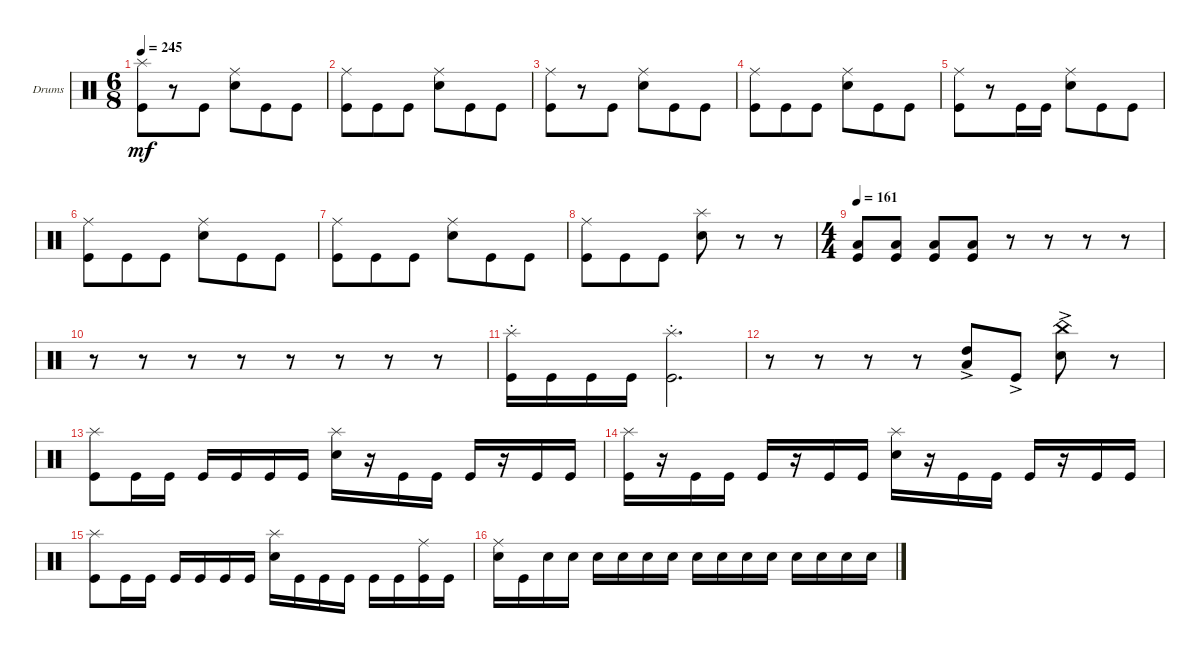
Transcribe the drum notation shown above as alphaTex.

\bracketExtendMode groupsimilarinstruments
\firstSystemTrackNameOrientation horizontal
\otherSystemsTrackNameOrientation horizontal
\track ("Drumkit" "Drums") {instrument percussion}
\staff {score}
\articulation defaults
\ts (6 8)
\tempo 245
\clef neutral
\ks c
("Kick (hit)" "Splash (hit)").8{dy mf} r.8 "Kick (hit)".8 ("Snare (hit) 2" "Ride (middle)").8 "Kick (hit)".8 "Kick (hit)".8 |
("Kick (hit)" "Ride (middle)").8 "Kick (hit)".8 "Kick (hit)".8 ("Snare (hit) 2" "Ride (middle)").8 "Kick (hit)".8 "Kick (hit)".8 |
("Kick (hit)" "Ride (middle)").8 r.8 "Kick (hit)".8 ("Snare (hit) 2" "Ride (middle)").8 "Kick (hit)".8 "Kick (hit)".8 |
("Kick (hit)" "Ride (middle)").8 "Kick (hit)".8 "Kick (hit)".8 ("Snare (hit) 2" "Ride (middle)").8 "Kick (hit)".8 "Kick (hit)".8 |
("Kick (hit)" "Ride (middle)").8 r.8 "Kick (hit)".16 "Kick (hit)".16 ("Snare (hit) 2" "Ride (middle)").8 "Kick (hit)".8 "Kick (hit)".8 |
("Kick (hit)" "Ride (middle)").8 "Kick (hit)".8 "Kick (hit)".8 ("Snare (hit) 2" "Ride (middle)").8 "Kick (hit)".8 "Kick (hit)".8 |
("Kick (hit)" "Ride (middle)").8 "Kick (hit)".8 "Kick (hit)".8 ("Snare (hit) 2" "Ride (middle)").8 "Kick (hit)".8 "Kick (hit)".8 |
("Kick (hit)" "Ride (middle)").8 "Kick (hit)".8 "Kick (hit)".8 ("Snare (hit) 2" "Splash (hit)").8 r.8 r.8 |
\ts (4 4)
\tempo 161
("Kick (hit)" "Low Tom (hit)").8 ("Kick (hit)" "Low Tom (hit)").8 ("Kick (hit)" "Low Tom (hit)").8 ("Kick (hit)" "Low Tom (hit)").8 r.8 r.8 r.8 r.8 |
r.8 r.8 r.8 r.8 r.8 r.8 r.8 r.8 |
("Kick (hit)" "Splash (hit)"{st}).16 "Kick (hit)".16 "Kick (hit)".16 "Kick (hit)".16 ("Kick (hit)" "Splash (hit)"{st}).2{d} |
r.8 r.8 r.8 r.8 ("High Tom (hit)"{ac} "Low Tom (hit)").8 "Kick (hit)"{ac}.8 ("Snare (hit) 2"{ac} "China (hit)"{ac}).8 r.8 |
("Kick (hit)" "Splash (hit)").8 "Kick (hit)".16 "Kick (hit)".16 "Kick (hit)".16 "Kick (hit)".16 "Kick (hit)".16 "Kick (hit)".16 ("Snare (hit) 2" "Splash (hit)").16 r.16 "Kick (hit)".16 "Kick (hit)".16 "Kick (hit)".16 r.16 "Kick (hit)".16 "Kick (hit)".16 |
("Kick (hit)" "Splash (hit)").16 r.16 "Kick (hit)".16 "Kick (hit)".16 "Kick (hit)".16 r.16 "Kick (hit)".16 "Kick (hit)".16 ("Snare (hit) 2" "Splash (hit)").16 r.16 "Kick (hit)".16 "Kick (hit)".16 "Kick (hit)".16 r.16 "Kick (hit)".16 "Kick (hit)".16 |
("Kick (hit)" "Splash (hit)").8 "Kick (hit)".16 "Kick (hit)".16 "Kick (hit)".16 "Kick (hit)".16 "Kick (hit)".16 "Kick (hit)".16 ("Snare (hit) 2" "Splash (hit)").16 "Kick (hit)".16 "Kick (hit)".16 "Kick (hit)".16 "Kick (hit)".16 "Kick (hit)".16 ("Kick (hit)" "Ride (middle)").16 "Kick (hit)".16 |
("Snare (hit) 2" "Ride (middle)").16 "Kick (hit)".16 "Snare (hit) 2".16 "Snare (hit) 2".16 "Snare (hit) 2".16 "Snare (hit) 2".16 "Snare (hit) 2".16 "Snare (hit) 2".16 "Snare (hit) 2".16 "Snare (hit) 2".16 "Snare (hit) 2".16 "Snare (hit) 2".16 "Snare (hit) 2".16 "Snare (hit) 2".16 "Snare (hit) 2".16 "Snare (hit) 2".16
